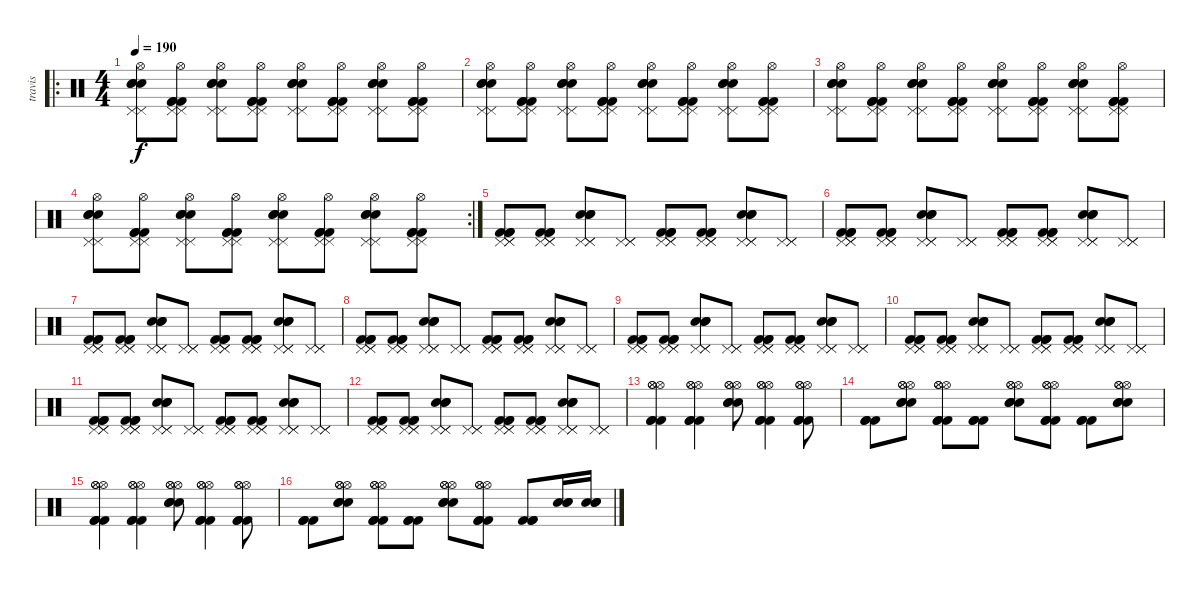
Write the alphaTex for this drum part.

\track ("travis" "travis") {instrument percussion}
\staff {score}
\articulation defaults
\ro
\ts (4 4)
\tempo 190
\clef neutral
\ks c
("Snare (hit) 2" "Snare (hit) 2" "Snare (hit) 2" "Pedal Hi-Hat (hit)" "Hi-Hat (open)" "Pedal Hi-Hat (hit)").8{dy f} ("Kick (hit) 2" "Kick (hit) 2" "Kick (hit) 2" "Pedal Hi-Hat (hit)" "Hi-Hat (open)" "Pedal Hi-Hat (hit)").8 ("Snare (hit) 2" "Snare (hit) 2" "Snare (hit) 2" "Pedal Hi-Hat (hit)" "Hi-Hat (open)" "Pedal Hi-Hat (hit)").8 ("Kick (hit) 2" "Kick (hit) 2" "Kick (hit) 2" "Pedal Hi-Hat (hit)" "Hi-Hat (open)" "Pedal Hi-Hat (hit)").8 ("Snare (hit) 2" "Snare (hit) 2" "Snare (hit) 2" "Pedal Hi-Hat (hit)" "Hi-Hat (open)" "Pedal Hi-Hat (hit)").8 ("Kick (hit) 2" "Kick (hit) 2" "Kick (hit) 2" "Pedal Hi-Hat (hit)" "Hi-Hat (open)" "Pedal Hi-Hat (hit)").8 ("Snare (hit) 2" "Snare (hit) 2" "Snare (hit) 2" "Pedal Hi-Hat (hit)" "Hi-Hat (open)" "Pedal Hi-Hat (hit)").8 ("Kick (hit) 2" "Kick (hit) 2" "Kick (hit) 2" "Pedal Hi-Hat (hit)" "Hi-Hat (open)" "Pedal Hi-Hat (hit)").8 |
("Snare (hit) 2" "Snare (hit) 2" "Snare (hit) 2" "Pedal Hi-Hat (hit)" "Hi-Hat (open)" "Pedal Hi-Hat (hit)").8 ("Kick (hit) 2" "Kick (hit) 2" "Kick (hit) 2" "Pedal Hi-Hat (hit)" "Hi-Hat (open)" "Pedal Hi-Hat (hit)").8 ("Snare (hit) 2" "Snare (hit) 2" "Snare (hit) 2" "Pedal Hi-Hat (hit)" "Hi-Hat (open)" "Pedal Hi-Hat (hit)").8 ("Kick (hit) 2" "Kick (hit) 2" "Kick (hit) 2" "Pedal Hi-Hat (hit)" "Hi-Hat (open)" "Pedal Hi-Hat (hit)").8 ("Snare (hit) 2" "Snare (hit) 2" "Snare (hit) 2" "Pedal Hi-Hat (hit)" "Hi-Hat (open)" "Pedal Hi-Hat (hit)").8 ("Kick (hit) 2" "Kick (hit) 2" "Kick (hit) 2" "Pedal Hi-Hat (hit)" "Hi-Hat (open)" "Pedal Hi-Hat (hit)").8 ("Snare (hit) 2" "Snare (hit) 2" "Snare (hit) 2" "Pedal Hi-Hat (hit)" "Hi-Hat (open)" "Pedal Hi-Hat (hit)").8 ("Kick (hit) 2" "Kick (hit) 2" "Kick (hit) 2" "Pedal Hi-Hat (hit)" "Hi-Hat (open)" "Pedal Hi-Hat (hit)").8 |
("Snare (hit) 2" "Snare (hit) 2" "Snare (hit) 2" "Pedal Hi-Hat (hit)" "Hi-Hat (open)" "Pedal Hi-Hat (hit)").8 ("Kick (hit) 2" "Kick (hit) 2" "Kick (hit) 2" "Pedal Hi-Hat (hit)" "Hi-Hat (open)" "Pedal Hi-Hat (hit)").8 ("Snare (hit) 2" "Snare (hit) 2" "Snare (hit) 2" "Pedal Hi-Hat (hit)" "Hi-Hat (open)" "Pedal Hi-Hat (hit)").8 ("Kick (hit) 2" "Kick (hit) 2" "Kick (hit) 2" "Pedal Hi-Hat (hit)" "Hi-Hat (open)" "Pedal Hi-Hat (hit)").8 ("Snare (hit) 2" "Snare (hit) 2" "Snare (hit) 2" "Pedal Hi-Hat (hit)" "Hi-Hat (open)" "Pedal Hi-Hat (hit)").8 ("Kick (hit) 2" "Kick (hit) 2" "Kick (hit) 2" "Pedal Hi-Hat (hit)" "Hi-Hat (open)" "Pedal Hi-Hat (hit)").8 ("Snare (hit) 2" "Snare (hit) 2" "Snare (hit) 2" "Pedal Hi-Hat (hit)" "Hi-Hat (open)" "Pedal Hi-Hat (hit)").8 ("Kick (hit) 2" "Kick (hit) 2" "Kick (hit) 2" "Pedal Hi-Hat (hit)" "Hi-Hat (open)" "Pedal Hi-Hat (hit)").8 |
\rc 2
("Snare (hit) 2" "Snare (hit) 2" "Snare (hit) 2" "Pedal Hi-Hat (hit)" "Hi-Hat (open)" "Pedal Hi-Hat (hit)").8 ("Kick (hit) 2" "Kick (hit) 2" "Kick (hit) 2" "Pedal Hi-Hat (hit)" "Hi-Hat (open)" "Pedal Hi-Hat (hit)").8 ("Snare (hit) 2" "Snare (hit) 2" "Snare (hit) 2" "Pedal Hi-Hat (hit)" "Hi-Hat (open)" "Pedal Hi-Hat (hit)").8 ("Kick (hit) 2" "Kick (hit) 2" "Kick (hit) 2" "Pedal Hi-Hat (hit)" "Hi-Hat (open)" "Pedal Hi-Hat (hit)").8 ("Snare (hit) 2" "Snare (hit) 2" "Snare (hit) 2" "Pedal Hi-Hat (hit)" "Hi-Hat (open)" "Pedal Hi-Hat (hit)").8 ("Kick (hit) 2" "Kick (hit) 2" "Kick (hit) 2" "Pedal Hi-Hat (hit)" "Hi-Hat (open)" "Pedal Hi-Hat (hit)").8 ("Snare (hit) 2" "Snare (hit) 2" "Snare (hit) 2" "Pedal Hi-Hat (hit)" "Hi-Hat (open)" "Pedal Hi-Hat (hit)").8 ("Kick (hit) 2" "Kick (hit) 2" "Kick (hit) 2" "Pedal Hi-Hat (hit)" "Hi-Hat (open)" "Pedal Hi-Hat (hit)").8 |
("Kick (hit) 2" "Kick (hit) 2" "Kick (hit) 2" "Pedal Hi-Hat (hit)" "Pedal Hi-Hat (hit)" "Pedal Hi-Hat (hit)").8 ("Kick (hit) 2" "Kick (hit) 2" "Kick (hit) 2" "Pedal Hi-Hat (hit)" "Pedal Hi-Hat (hit)" "Pedal Hi-Hat (hit)").8 ("Snare (hit) 2" "Snare (hit) 2" "Snare (hit) 2" "Pedal Hi-Hat (hit)" "Pedal Hi-Hat (hit)" "Pedal Hi-Hat (hit)").8 ("Pedal Hi-Hat (hit)" "Pedal Hi-Hat (hit)" "Pedal Hi-Hat (hit)").8 ("Kick (hit) 2" "Kick (hit) 2" "Kick (hit) 2" "Pedal Hi-Hat (hit)" "Pedal Hi-Hat (hit)" "Pedal Hi-Hat (hit)").8 ("Kick (hit) 2" "Kick (hit) 2" "Kick (hit) 2" "Pedal Hi-Hat (hit)" "Pedal Hi-Hat (hit)" "Pedal Hi-Hat (hit)").8 ("Snare (hit) 2" "Snare (hit) 2" "Snare (hit) 2" "Pedal Hi-Hat (hit)" "Pedal Hi-Hat (hit)" "Pedal Hi-Hat (hit)").8 ("Pedal Hi-Hat (hit)" "Pedal Hi-Hat (hit)" "Pedal Hi-Hat (hit)").8 |
("Kick (hit) 2" "Kick (hit) 2" "Kick (hit) 2" "Pedal Hi-Hat (hit)" "Pedal Hi-Hat (hit)" "Pedal Hi-Hat (hit)").8 ("Kick (hit) 2" "Kick (hit) 2" "Kick (hit) 2" "Pedal Hi-Hat (hit)" "Pedal Hi-Hat (hit)" "Pedal Hi-Hat (hit)").8 ("Snare (hit) 2" "Snare (hit) 2" "Snare (hit) 2" "Pedal Hi-Hat (hit)" "Pedal Hi-Hat (hit)" "Pedal Hi-Hat (hit)").8 ("Pedal Hi-Hat (hit)" "Pedal Hi-Hat (hit)" "Pedal Hi-Hat (hit)").8 ("Kick (hit) 2" "Kick (hit) 2" "Kick (hit) 2" "Pedal Hi-Hat (hit)" "Pedal Hi-Hat (hit)" "Pedal Hi-Hat (hit)").8 ("Kick (hit) 2" "Kick (hit) 2" "Kick (hit) 2" "Pedal Hi-Hat (hit)" "Pedal Hi-Hat (hit)" "Pedal Hi-Hat (hit)").8 ("Snare (hit) 2" "Snare (hit) 2" "Snare (hit) 2" "Pedal Hi-Hat (hit)" "Pedal Hi-Hat (hit)" "Pedal Hi-Hat (hit)").8 ("Pedal Hi-Hat (hit)" "Pedal Hi-Hat (hit)" "Pedal Hi-Hat (hit)").8 |
("Kick (hit) 2" "Kick (hit) 2" "Kick (hit) 2" "Pedal Hi-Hat (hit)" "Pedal Hi-Hat (hit)" "Pedal Hi-Hat (hit)").8 ("Kick (hit) 2" "Kick (hit) 2" "Kick (hit) 2" "Pedal Hi-Hat (hit)" "Pedal Hi-Hat (hit)" "Pedal Hi-Hat (hit)").8 ("Snare (hit) 2" "Snare (hit) 2" "Snare (hit) 2" "Pedal Hi-Hat (hit)" "Pedal Hi-Hat (hit)" "Pedal Hi-Hat (hit)").8 ("Pedal Hi-Hat (hit)" "Pedal Hi-Hat (hit)" "Pedal Hi-Hat (hit)").8 ("Kick (hit) 2" "Kick (hit) 2" "Kick (hit) 2" "Pedal Hi-Hat (hit)" "Pedal Hi-Hat (hit)" "Pedal Hi-Hat (hit)").8 ("Kick (hit) 2" "Kick (hit) 2" "Kick (hit) 2" "Pedal Hi-Hat (hit)" "Pedal Hi-Hat (hit)" "Pedal Hi-Hat (hit)").8 ("Snare (hit) 2" "Snare (hit) 2" "Snare (hit) 2" "Pedal Hi-Hat (hit)" "Pedal Hi-Hat (hit)" "Pedal Hi-Hat (hit)").8 ("Pedal Hi-Hat (hit)" "Pedal Hi-Hat (hit)" "Pedal Hi-Hat (hit)").8 |
("Kick (hit) 2" "Kick (hit) 2" "Kick (hit) 2" "Pedal Hi-Hat (hit)" "Pedal Hi-Hat (hit)" "Pedal Hi-Hat (hit)").8 ("Kick (hit) 2" "Kick (hit) 2" "Kick (hit) 2" "Pedal Hi-Hat (hit)" "Pedal Hi-Hat (hit)" "Pedal Hi-Hat (hit)").8 ("Snare (hit) 2" "Snare (hit) 2" "Snare (hit) 2" "Pedal Hi-Hat (hit)" "Pedal Hi-Hat (hit)" "Pedal Hi-Hat (hit)").8 ("Pedal Hi-Hat (hit)" "Pedal Hi-Hat (hit)" "Pedal Hi-Hat (hit)").8 ("Kick (hit) 2" "Kick (hit) 2" "Kick (hit) 2" "Pedal Hi-Hat (hit)" "Pedal Hi-Hat (hit)" "Pedal Hi-Hat (hit)").8 ("Kick (hit) 2" "Kick (hit) 2" "Kick (hit) 2" "Pedal Hi-Hat (hit)" "Pedal Hi-Hat (hit)" "Pedal Hi-Hat (hit)").8 ("Snare (hit) 2" "Snare (hit) 2" "Snare (hit) 2" "Pedal Hi-Hat (hit)" "Pedal Hi-Hat (hit)" "Pedal Hi-Hat (hit)").8 ("Pedal Hi-Hat (hit)" "Pedal Hi-Hat (hit)" "Pedal Hi-Hat (hit)").8 |
("Kick (hit) 2" "Kick (hit) 2" "Kick (hit) 2" "Pedal Hi-Hat (hit)" "Pedal Hi-Hat (hit)" "Pedal Hi-Hat (hit)").8 ("Kick (hit) 2" "Kick (hit) 2" "Kick (hit) 2" "Pedal Hi-Hat (hit)" "Pedal Hi-Hat (hit)" "Pedal Hi-Hat (hit)").8 ("Snare (hit) 2" "Snare (hit) 2" "Snare (hit) 2" "Pedal Hi-Hat (hit)" "Pedal Hi-Hat (hit)" "Pedal Hi-Hat (hit)").8 ("Pedal Hi-Hat (hit)" "Pedal Hi-Hat (hit)" "Pedal Hi-Hat (hit)").8 ("Kick (hit) 2" "Kick (hit) 2" "Kick (hit) 2" "Pedal Hi-Hat (hit)" "Pedal Hi-Hat (hit)" "Pedal Hi-Hat (hit)").8 ("Kick (hit) 2" "Kick (hit) 2" "Kick (hit) 2" "Pedal Hi-Hat (hit)" "Pedal Hi-Hat (hit)" "Pedal Hi-Hat (hit)").8 ("Snare (hit) 2" "Snare (hit) 2" "Snare (hit) 2" "Pedal Hi-Hat (hit)" "Pedal Hi-Hat (hit)" "Pedal Hi-Hat (hit)").8 ("Pedal Hi-Hat (hit)" "Pedal Hi-Hat (hit)" "Pedal Hi-Hat (hit)").8 |
("Kick (hit) 2" "Kick (hit) 2" "Kick (hit) 2" "Pedal Hi-Hat (hit)" "Pedal Hi-Hat (hit)" "Pedal Hi-Hat (hit)").8 ("Kick (hit) 2" "Kick (hit) 2" "Kick (hit) 2" "Pedal Hi-Hat (hit)" "Pedal Hi-Hat (hit)" "Pedal Hi-Hat (hit)").8 ("Snare (hit) 2" "Snare (hit) 2" "Snare (hit) 2" "Pedal Hi-Hat (hit)" "Pedal Hi-Hat (hit)" "Pedal Hi-Hat (hit)").8 ("Pedal Hi-Hat (hit)" "Pedal Hi-Hat (hit)" "Pedal Hi-Hat (hit)").8 ("Kick (hit) 2" "Kick (hit) 2" "Kick (hit) 2" "Pedal Hi-Hat (hit)" "Pedal Hi-Hat (hit)" "Pedal Hi-Hat (hit)").8 ("Kick (hit) 2" "Kick (hit) 2" "Kick (hit) 2" "Pedal Hi-Hat (hit)" "Pedal Hi-Hat (hit)" "Pedal Hi-Hat (hit)").8 ("Snare (hit) 2" "Snare (hit) 2" "Snare (hit) 2" "Pedal Hi-Hat (hit)" "Pedal Hi-Hat (hit)" "Pedal Hi-Hat (hit)").8 ("Pedal Hi-Hat (hit)" "Pedal Hi-Hat (hit)" "Pedal Hi-Hat (hit)").8 |
("Kick (hit) 2" "Kick (hit) 2" "Kick (hit) 2" "Pedal Hi-Hat (hit)" "Pedal Hi-Hat (hit)" "Pedal Hi-Hat (hit)").8 ("Kick (hit) 2" "Kick (hit) 2" "Kick (hit) 2" "Pedal Hi-Hat (hit)" "Pedal Hi-Hat (hit)" "Pedal Hi-Hat (hit)").8 ("Snare (hit) 2" "Snare (hit) 2" "Snare (hit) 2" "Pedal Hi-Hat (hit)" "Pedal Hi-Hat (hit)" "Pedal Hi-Hat (hit)").8 ("Pedal Hi-Hat (hit)" "Pedal Hi-Hat (hit)" "Pedal Hi-Hat (hit)").8 ("Kick (hit) 2" "Kick (hit) 2" "Kick (hit) 2" "Pedal Hi-Hat (hit)" "Pedal Hi-Hat (hit)" "Pedal Hi-Hat (hit)").8 ("Kick (hit) 2" "Kick (hit) 2" "Kick (hit) 2" "Pedal Hi-Hat (hit)" "Pedal Hi-Hat (hit)" "Pedal Hi-Hat (hit)").8 ("Snare (hit) 2" "Snare (hit) 2" "Snare (hit) 2" "Pedal Hi-Hat (hit)" "Pedal Hi-Hat (hit)" "Pedal Hi-Hat (hit)").8 ("Pedal Hi-Hat (hit)" "Pedal Hi-Hat (hit)" "Pedal Hi-Hat (hit)").8 |
("Kick (hit) 2" "Kick (hit) 2" "Kick (hit) 2" "Pedal Hi-Hat (hit)" "Pedal Hi-Hat (hit)" "Pedal Hi-Hat (hit)").8 ("Kick (hit) 2" "Kick (hit) 2" "Kick (hit) 2" "Pedal Hi-Hat (hit)" "Pedal Hi-Hat (hit)" "Pedal Hi-Hat (hit)").8 ("Snare (hit) 2" "Snare (hit) 2" "Snare (hit) 2" "Pedal Hi-Hat (hit)" "Pedal Hi-Hat (hit)" "Pedal Hi-Hat (hit)").8 ("Pedal Hi-Hat (hit)" "Pedal Hi-Hat (hit)" "Pedal Hi-Hat (hit)").8 ("Kick (hit) 2" "Kick (hit) 2" "Kick (hit) 2" "Pedal Hi-Hat (hit)" "Pedal Hi-Hat (hit)" "Pedal Hi-Hat (hit)").8 ("Kick (hit) 2" "Kick (hit) 2" "Kick (hit) 2" "Pedal Hi-Hat (hit)" "Pedal Hi-Hat (hit)" "Pedal Hi-Hat (hit)").8 ("Snare (hit) 2" "Snare (hit) 2" "Snare (hit) 2" "Pedal Hi-Hat (hit)" "Pedal Hi-Hat (hit)" "Pedal Hi-Hat (hit)").8 ("Pedal Hi-Hat (hit)" "Pedal Hi-Hat (hit)" "Pedal Hi-Hat (hit)").8 |
("Kick (hit) 2" "Kick (hit) 2" "Kick (hit) 2" "Hi-Hat (open)" "Hi-Hat (open)" "Hi-Hat (open)").4 ("Kick (hit) 2" "Kick (hit) 2" "Kick (hit) 2" "Hi-Hat (open)" "Hi-Hat (open)" "Hi-Hat (open)").4 ("Snare (hit) 2" "Snare (hit) 2" "Snare (hit) 2" "Hi-Hat (open)" "Hi-Hat (open)" "Hi-Hat (open)").8 ("Kick (hit) 2" "Kick (hit) 2" "Kick (hit) 2" "Hi-Hat (open)" "Hi-Hat (open)" "Hi-Hat (open)").4 ("Kick (hit) 2" "Kick (hit) 2" "Kick (hit) 2" "Hi-Hat (open)" "Hi-Hat (open)" "Hi-Hat (open)").8 |
("Kick (hit) 2" "Kick (hit) 2" "Kick (hit) 2").8 ("Snare (hit) 2" "Snare (hit) 2" "Snare (hit) 2" "Hi-Hat (open)" "Hi-Hat (open)" "Hi-Hat (open)").8 ("Kick (hit) 2" "Kick (hit) 2" "Kick (hit) 2" "Hi-Hat (open)" "Hi-Hat (open)" "Hi-Hat (open)").8 ("Kick (hit) 2" "Kick (hit) 2" "Kick (hit) 2").8 ("Snare (hit) 2" "Snare (hit) 2" "Snare (hit) 2" "Hi-Hat (open)" "Hi-Hat (open)" "Hi-Hat (open)").8 ("Kick (hit) 2" "Kick (hit) 2" "Kick (hit) 2" "Hi-Hat (open)" "Hi-Hat (open)" "Hi-Hat (open)").8 ("Kick (hit) 2" "Kick (hit) 2" "Kick (hit) 2").8 ("Snare (hit) 2" "Snare (hit) 2" "Snare (hit) 2" "Hi-Hat (open)" "Hi-Hat (open)" "Hi-Hat (open)").8 |
("Kick (hit) 2" "Kick (hit) 2" "Kick (hit) 2" "Hi-Hat (open)" "Hi-Hat (open)" "Hi-Hat (open)").4 ("Kick (hit) 2" "Kick (hit) 2" "Kick (hit) 2" "Hi-Hat (open)" "Hi-Hat (open)" "Hi-Hat (open)").4 ("Snare (hit) 2" "Snare (hit) 2" "Snare (hit) 2" "Hi-Hat (open)" "Hi-Hat (open)" "Hi-Hat (open)").8 ("Kick (hit) 2" "Kick (hit) 2" "Kick (hit) 2" "Hi-Hat (open)" "Hi-Hat (open)" "Hi-Hat (open)").4 ("Kick (hit) 2" "Kick (hit) 2" "Kick (hit) 2" "Hi-Hat (open)" "Hi-Hat (open)" "Hi-Hat (open)").8 |
("Kick (hit) 2" "Kick (hit) 2" "Kick (hit) 2").8 ("Snare (hit) 2" "Snare (hit) 2" "Snare (hit) 2" "Hi-Hat (open)" "Hi-Hat (open)" "Hi-Hat (open)").8 ("Kick (hit) 2" "Kick (hit) 2" "Kick (hit) 2" "Hi-Hat (open)" "Hi-Hat (open)" "Hi-Hat (open)").8 ("Kick (hit) 2" "Kick (hit) 2" "Kick (hit) 2").8 ("Snare (hit) 2" "Snare (hit) 2" "Snare (hit) 2" "Hi-Hat (open)" "Hi-Hat (open)" "Hi-Hat (open)").8 ("Kick (hit) 2" "Kick (hit) 2" "Kick (hit) 2" "Hi-Hat (open)" "Hi-Hat (open)" "Hi-Hat (open)").8 ("Kick (hit) 2" "Kick (hit) 2" "Kick (hit) 2").8 ("Snare (hit) 2" "Snare (hit) 2" "Snare (hit) 2").16 ("Snare (hit) 2" "Snare (hit) 2" "Snare (hit) 2").16
